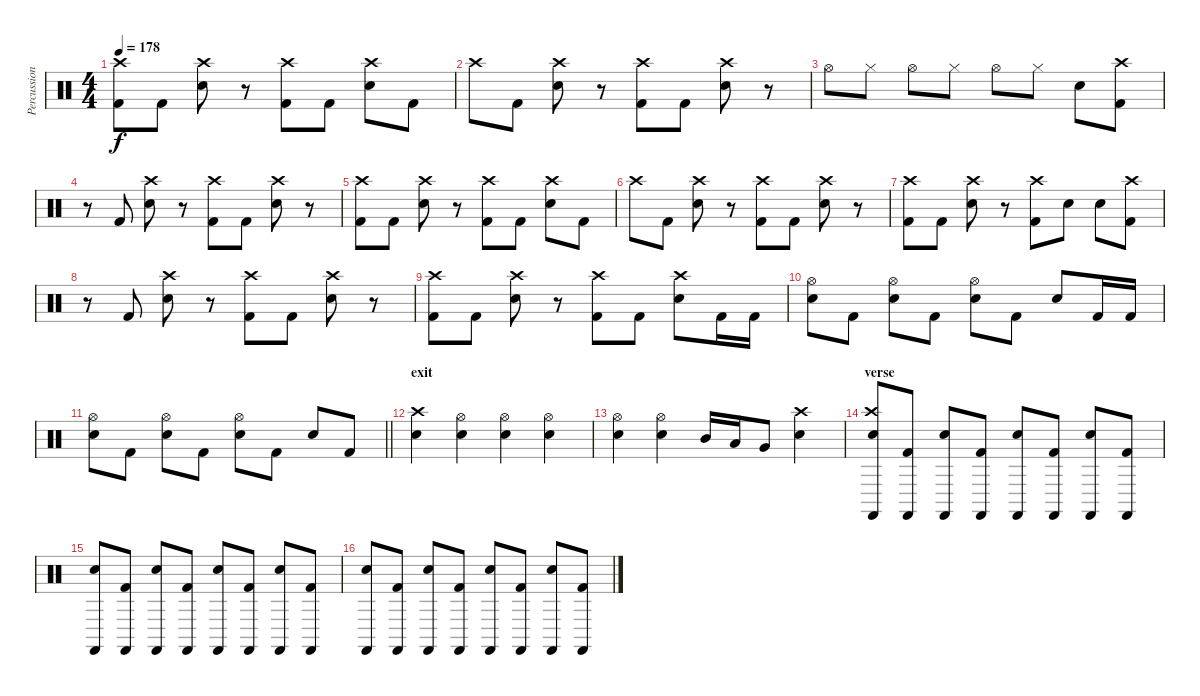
\track ("Percussion" "Percussion") {instrument percussion}
\staff {score}
\articulation defaults
\ts (4 4)
\tempo 178
\clef neutral
\ks c
("Crash high (hit)" "Kick (hit) 2").8{dy f} "Kick (hit) 2".8 ("Crash high (hit)" "Electric Snare (hit)").8 r.8 ("Crash high (hit)" "Kick (hit) 2").8 "Kick (hit) 2".8 ("Crash high (hit)" "Electric Snare (hit)").8 "Kick (hit) 2".8 |
"Crash high (hit)".8 "Kick (hit) 2".8 ("Crash high (hit)" "Electric Snare (hit)").8 r.8 ("Crash high (hit)" "Kick (hit) 2").8 "Kick (hit) 2".8 ("Crash high (hit)" "Electric Snare (hit)").8 r.8 |
"Hi-Hat (open)".8 "Hi-Hat (closed)".8 "Hi-Hat (open)".8 "Hi-Hat (closed)".8 "Hi-Hat (open)".8 "Hi-Hat (closed)".8 "Electric Snare (hit)".8 ("Crash high (hit)" "Kick (hit) 2").8 |
r.8 "Kick (hit) 2".8 ("Crash high (hit)" "Electric Snare (hit)").8 r.8 ("Crash high (hit)" "Kick (hit) 2").8 "Kick (hit) 2".8 ("Crash high (hit)" "Electric Snare (hit)").8 r.8 |
("Crash high (hit)" "Kick (hit) 2").8 "Kick (hit) 2".8 ("Crash high (hit)" "Electric Snare (hit)").8 r.8 ("Crash high (hit)" "Kick (hit) 2").8 "Kick (hit) 2".8 ("Crash high (hit)" "Electric Snare (hit)").8 "Kick (hit) 2".8 |
"Crash high (hit)".8 "Kick (hit) 2".8 ("Crash high (hit)" "Electric Snare (hit)").8 r.8 ("Crash high (hit)" "Kick (hit) 2").8 "Kick (hit) 2".8 ("Crash high (hit)" "Electric Snare (hit)").8 r.8 |
("Crash high (hit)" "Kick (hit) 2").8 "Kick (hit) 2".8 ("Crash high (hit)" "Electric Snare (hit)").8 r.8 ("Crash high (hit)" "Kick (hit) 2").8 "Electric Snare (hit)".8 "Electric Snare (hit)".8 ("Crash high (hit)" "Kick (hit) 2").8 |
r.8 "Kick (hit) 2".8 ("Crash high (hit)" "Electric Snare (hit)").8 r.8 ("Crash high (hit)" "Kick (hit) 2").8 "Kick (hit) 2".8 ("Crash high (hit)" "Electric Snare (hit)").8 r.8 |
("Crash high (hit)" "Kick (hit) 2").8 "Kick (hit) 2".8 ("Crash high (hit)" "Electric Snare (hit)").8 r.8 ("Crash high (hit)" "Kick (hit) 2").8 "Kick (hit) 2".8 ("Crash high (hit)" "Electric Snare (hit)").8 "Kick (hit) 2".16 "Kick (hit) 2".16 |
("Hi-Hat (open)" "Electric Snare (hit)").8 "Kick (hit) 2".8 ("Hi-Hat (open)" "Electric Snare (hit)").8 "Kick (hit) 2".8 ("Hi-Hat (open)" "Electric Snare (hit)").8 "Kick (hit) 2".8 "Electric Snare (hit)".8 "Kick (hit) 2".16 "Kick (hit) 2".16 |
\barLineRight lightlight
("Hi-Hat (open)" "Electric Snare (hit)").8 "Kick (hit) 2".8 ("Hi-Hat (open)" "Electric Snare (hit)").8 "Kick (hit) 2".8 ("Hi-Hat (open)" "Electric Snare (hit)").8 "Kick (hit) 2".8 "Electric Snare (hit)".8 "Kick (hit) 2".8 |
\section ("" "exit")
("Crash high (hit)" "Electric Snare (hit)").4 ("Hi-Hat (open)" "Electric Snare (hit)").4 ("Hi-Hat (open)" "Electric Snare (hit)").4 ("Hi-Hat (open)" "Electric Snare (hit)").4 |
("Hi-Hat (open)" "Electric Snare (hit)").4 ("Hi-Hat (open)" "Electric Snare (hit)").4 "Mid Tom (hit)".16 "Low Tom (hit)".16 "Very Low Tom (hit)".8 ("Crash high (hit)" "Electric Snare (hit)").4 |
\section ("" "verse")
("Crash high (hit)" "Castanets (hit)" "Electric Snare (hit)").8 ("Castanets (hit)" "Kick (hit) 2").8 ("Castanets (hit)" "Electric Snare (hit)").8 ("Castanets (hit)" "Kick (hit) 2").8 ("Castanets (hit)" "Electric Snare (hit)").8 ("Castanets (hit)" "Kick (hit) 2").8 ("Castanets (hit)" "Electric Snare (hit)").8 ("Castanets (hit)" "Kick (hit) 2").8 |
("Castanets (hit)" "Electric Snare (hit)").8 ("Castanets (hit)" "Kick (hit) 2").8 ("Castanets (hit)" "Electric Snare (hit)").8 ("Castanets (hit)" "Kick (hit) 2").8 ("Castanets (hit)" "Electric Snare (hit)").8 ("Castanets (hit)" "Kick (hit) 2").8 ("Castanets (hit)" "Electric Snare (hit)").8 ("Castanets (hit)" "Kick (hit) 2").8 |
("Castanets (hit)" "Electric Snare (hit)").8 ("Castanets (hit)" "Kick (hit) 2").8 ("Castanets (hit)" "Electric Snare (hit)").8 ("Castanets (hit)" "Kick (hit) 2").8 ("Castanets (hit)" "Electric Snare (hit)").8 ("Castanets (hit)" "Kick (hit) 2").8 ("Castanets (hit)" "Electric Snare (hit)").8 ("Castanets (hit)" "Kick (hit) 2").8
